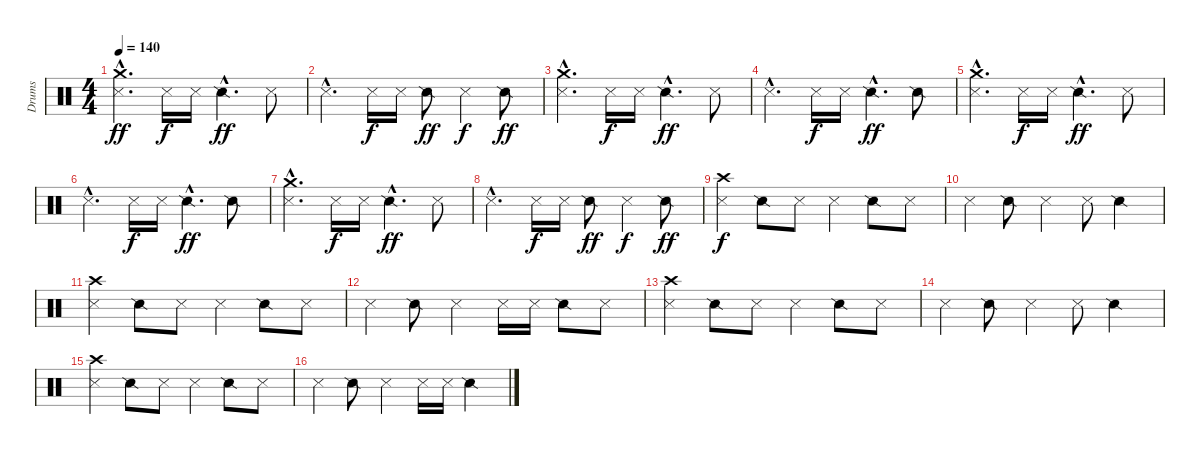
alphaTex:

\track ("Drums" "Drums") {instrument percussion}
\staff {score}
\articulation defaults
\ts (4 4)
\tempo 140
\clef neutral
\ks c
("Crash medium (hit)"{hac} "Metronome (hit)"{hac}).4{d dy ff} "Metronome (hit)".16{dy f} "Metronome (hit)".16 "Snare (side stick) 2"{hac}.4{d dy ff} "Metronome (hit)".8 |
"Metronome (hit)"{hac}.4{d} "Metronome (hit)".16{dy f} "Metronome (hit)".16 "Snare (side stick) 2".8{dy ff} "Metronome (hit)".4{dy f} "Snare (side stick) 2".8{dy ff} |
("Crash medium (hit)"{hac} "Metronome (hit)"{hac}).4{d} "Metronome (hit)".16{dy f} "Metronome (hit)".16 "Snare (side stick) 2"{hac}.4{d dy ff} "Metronome (hit)".8 |
"Metronome (hit)"{hac}.4{d} "Metronome (hit)".16{dy f} "Metronome (hit)".16 "Snare (side stick) 2"{hac}.4{d dy ff} "Snare (side stick) 2".8 |
("Crash medium (hit)"{hac} "Metronome (hit)"{hac}).4{d} "Metronome (hit)".16{dy f} "Metronome (hit)".16 "Snare (side stick) 2"{hac}.4{d dy ff} "Metronome (hit)".8 |
"Metronome (hit)"{hac}.4{d} "Metronome (hit)".16{dy f} "Metronome (hit)".16 "Snare (side stick) 2"{hac}.4{d dy ff} "Snare (side stick) 2".8 |
("Crash medium (hit)"{hac} "Metronome (hit)"{hac}).4{d} "Metronome (hit)".16{dy f} "Metronome (hit)".16 "Snare (side stick) 2"{hac}.4{d dy ff} "Metronome (hit)".8 |
"Metronome (hit)"{hac}.4{d} "Metronome (hit)".16{dy f} "Metronome (hit)".16 "Snare (side stick) 2".8{dy ff} "Metronome (hit)".4{dy f} "Snare (side stick) 2".8{dy ff} |
("Crash high (hit)" "Metronome (hit)").4{dy f} "Snare (side stick) 2".8 "Metronome (hit)".8 "Metronome (hit)".4 "Snare (side stick) 2".8 "Metronome (hit)".8 |
"Metronome (hit)".4 "Snare (side stick) 2".8 "Metronome (hit)".4 "Metronome (hit)".8 "Snare (side stick) 2".4 |
("Crash high (hit)" "Metronome (hit)").4 "Snare (side stick) 2".8 "Metronome (hit)".8 "Metronome (hit)".4 "Snare (side stick) 2".8 "Metronome (hit)".8 |
"Metronome (hit)".4 "Snare (side stick) 2".8 "Metronome (hit)".4 "Metronome (hit)".16 "Metronome (hit)".16 "Snare (side stick) 2".8 "Metronome (hit)".8 |
("Crash high (hit)" "Metronome (hit)").4 "Snare (side stick) 2".8 "Metronome (hit)".8 "Metronome (hit)".4 "Snare (side stick) 2".8 "Metronome (hit)".8 |
"Metronome (hit)".4 "Snare (side stick) 2".8 "Metronome (hit)".4 "Metronome (hit)".8 "Snare (side stick) 2".4 |
("Crash high (hit)" "Metronome (hit)").4 "Snare (side stick) 2".8 "Metronome (hit)".8 "Metronome (hit)".4 "Snare (side stick) 2".8 "Metronome (hit)".8 |
"Metronome (hit)".4 "Snare (side stick) 2".8 "Metronome (hit)".4 "Metronome (hit)".16 "Metronome (hit)".16 "Snare (side stick) 2".4
